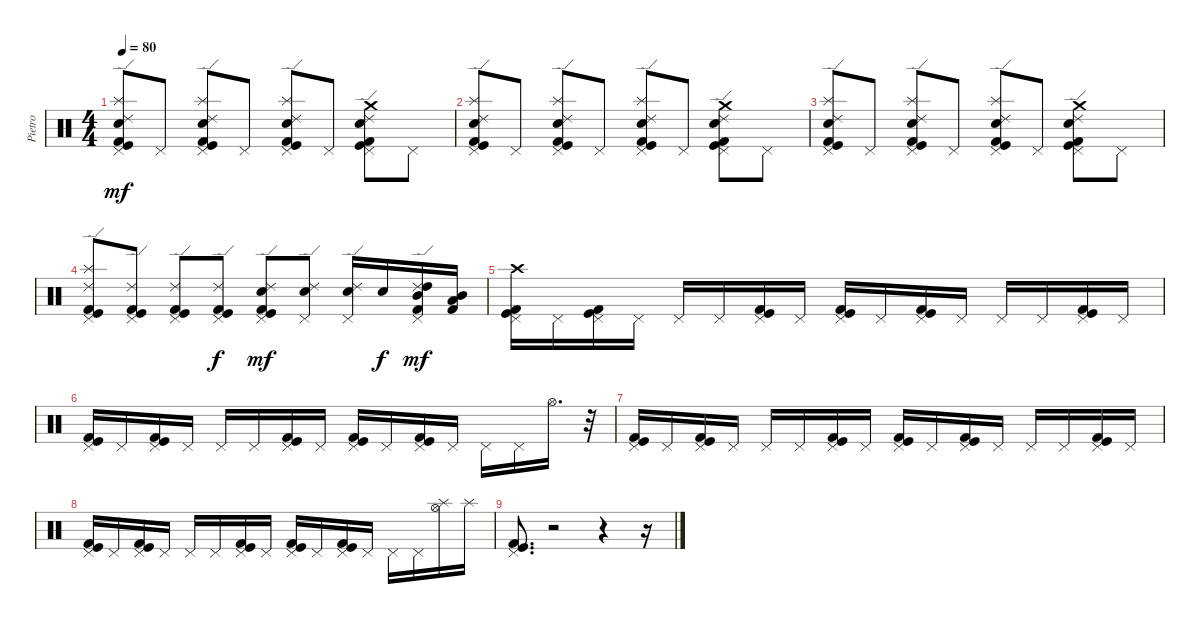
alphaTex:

\track ("Pietro" "Pietro") {instrument percussion}
\staff {score}
\articulation defaults
\ts (4 4)
\tempo 80
\clef neutral
\ks c
("Pedal Hi-Hat (hit)" "Ride (edge) 2" "Snare (hit) 2" "Splash (hit)" "Kick (hit)" "Kick (hit) 2").8{dy mf} "Pedal Hi-Hat (hit)".8 ("Pedal Hi-Hat (hit)" "Ride (edge) 2" "Snare (hit) 2" "Splash (hit)" "Kick (hit)" "Kick (hit) 2").8 "Pedal Hi-Hat (hit)".8 ("Pedal Hi-Hat (hit)" "Ride (edge) 2" "Snare (hit) 2" "Splash (hit)" "Kick (hit)" "Kick (hit) 2").8 "Pedal Hi-Hat (hit)".8 ("Pedal Hi-Hat (hit)" "Ride (edge) 2" "Snare (hit) 2" "Crash medium (hit)" "Kick (hit)" "Kick (hit) 2").8 "Pedal Hi-Hat (hit)".8 |
("Pedal Hi-Hat (hit)" "Ride (edge) 2" "Snare (hit) 2" "Splash (hit)" "Kick (hit)" "Kick (hit) 2").8 "Pedal Hi-Hat (hit)".8 ("Pedal Hi-Hat (hit)" "Ride (edge) 2" "Snare (hit) 2" "Splash (hit)" "Kick (hit)" "Kick (hit) 2").8 "Pedal Hi-Hat (hit)".8 ("Pedal Hi-Hat (hit)" "Ride (edge) 2" "Snare (hit) 2" "Splash (hit)" "Kick (hit)" "Kick (hit) 2").8 "Pedal Hi-Hat (hit)".8 ("Pedal Hi-Hat (hit)" "Ride (edge) 2" "Snare (hit) 2" "Crash medium (hit)" "Kick (hit)" "Kick (hit) 2").8 "Pedal Hi-Hat (hit)".8 |
("Pedal Hi-Hat (hit)" "Ride (edge) 2" "Snare (hit) 2" "Splash (hit)" "Kick (hit)" "Kick (hit) 2").8 "Pedal Hi-Hat (hit)".8 ("Pedal Hi-Hat (hit)" "Ride (edge) 2" "Snare (hit) 2" "Splash (hit)" "Kick (hit)" "Kick (hit) 2").8 "Pedal Hi-Hat (hit)".8 ("Pedal Hi-Hat (hit)" "Ride (edge) 2" "Snare (hit) 2" "Splash (hit)" "Kick (hit)" "Kick (hit) 2").8 "Pedal Hi-Hat (hit)".8 ("Pedal Hi-Hat (hit)" "Ride (edge) 2" "Snare (hit) 2" "Crash medium (hit)" "Kick (hit)" "Kick (hit) 2").8 "Pedal Hi-Hat (hit)".8 |
("Pedal Hi-Hat (hit)" "Ride (edge) 2" "Splash (hit)" "Kick (hit)" "Kick (hit) 2").8 ("Pedal Hi-Hat (hit)" "Ride (edge) 2" "Kick (hit)" "Kick (hit) 2").8 ("Pedal Hi-Hat (hit)" "Ride (edge) 2" "Kick (hit)" "Kick (hit) 2").8 ("Pedal Hi-Hat (hit)" "Ride (edge) 2" "Kick (hit)" "Kick (hit) 2").8{dy f} ("Pedal Hi-Hat (hit)" "Ride (edge) 2" "Snare (hit) 2" "Kick (hit)" "Kick (hit) 2").8{dy mf} ("Pedal Hi-Hat (hit)" "Ride (edge) 2" "Snare (hit) 2").8 ("Pedal Hi-Hat (hit)" "Ride (edge) 2" "Snare (hit) 2").16 "Snare (hit) 2".16{dy f} ("Pedal Hi-Hat (hit)" "Ride (edge) 2" "High Tom (hit)" "Mid Tom (hit)" "Kick (hit) 2").16{dy mf} ("Mid Tom (hit)" "Low Tom (hit)" "Kick (hit) 2").16 |
("Pedal Hi-Hat (hit)" "Crash high (hit)" "Kick (hit)" "Kick (hit) 2").16 "Pedal Hi-Hat (hit)".16 ("Pedal Hi-Hat (hit)" "Kick (hit)" "Kick (hit) 2").16 "Pedal Hi-Hat (hit)".16 "Pedal Hi-Hat (hit)".16 "Pedal Hi-Hat (hit)".16 ("Pedal Hi-Hat (hit)" "Kick (hit)" "Kick (hit) 2").16 "Pedal Hi-Hat (hit)".16 ("Pedal Hi-Hat (hit)" "Kick (hit)" "Kick (hit) 2").16 "Pedal Hi-Hat (hit)".16 ("Pedal Hi-Hat (hit)" "Kick (hit)" "Kick (hit) 2").16 "Pedal Hi-Hat (hit)".16 "Pedal Hi-Hat (hit)".16 "Pedal Hi-Hat (hit)".16 ("Pedal Hi-Hat (hit)" "Kick (hit)" "Kick (hit) 2").16 "Pedal Hi-Hat (hit)".16 |
("Pedal Hi-Hat (hit)" "Kick (hit)" "Kick (hit) 2").16 "Pedal Hi-Hat (hit)".16 ("Pedal Hi-Hat (hit)" "Kick (hit)" "Kick (hit) 2").16 "Pedal Hi-Hat (hit)".16 "Pedal Hi-Hat (hit)".16 "Pedal Hi-Hat (hit)".16 ("Pedal Hi-Hat (hit)" "Kick (hit)" "Kick (hit) 2").16 "Pedal Hi-Hat (hit)".16 ("Pedal Hi-Hat (hit)" "Kick (hit)" "Kick (hit) 2").16 "Pedal Hi-Hat (hit)".16 ("Pedal Hi-Hat (hit)" "Kick (hit)" "Kick (hit) 2").16 "Pedal Hi-Hat (hit)".16 "Pedal Hi-Hat (hit)".16 "Pedal Hi-Hat (hit)".16 "Hi-Hat (open)".16{d} r.32 |
("Pedal Hi-Hat (hit)" "Kick (hit)" "Kick (hit) 2").16 "Pedal Hi-Hat (hit)".16 ("Pedal Hi-Hat (hit)" "Kick (hit)" "Kick (hit) 2").16 "Pedal Hi-Hat (hit)".16 "Pedal Hi-Hat (hit)".16 "Pedal Hi-Hat (hit)".16 ("Pedal Hi-Hat (hit)" "Kick (hit)" "Kick (hit) 2").16 "Pedal Hi-Hat (hit)".16 ("Pedal Hi-Hat (hit)" "Kick (hit)" "Kick (hit) 2").16 "Pedal Hi-Hat (hit)".16 ("Pedal Hi-Hat (hit)" "Kick (hit)" "Kick (hit) 2").16 "Pedal Hi-Hat (hit)".16 "Pedal Hi-Hat (hit)".16 "Pedal Hi-Hat (hit)".16 ("Pedal Hi-Hat (hit)" "Kick (hit)" "Kick (hit) 2").16 "Pedal Hi-Hat (hit)".16 |
("Pedal Hi-Hat (hit)" "Kick (hit)" "Kick (hit) 2").16 "Pedal Hi-Hat (hit)".16 ("Pedal Hi-Hat (hit)" "Kick (hit)" "Kick (hit) 2").16 "Pedal Hi-Hat (hit)".16 "Pedal Hi-Hat (hit)".16 "Pedal Hi-Hat (hit)".16 ("Pedal Hi-Hat (hit)" "Kick (hit)" "Kick (hit) 2").16 "Pedal Hi-Hat (hit)".16 ("Pedal Hi-Hat (hit)" "Kick (hit)" "Kick (hit) 2").16 "Pedal Hi-Hat (hit)".16 ("Pedal Hi-Hat (hit)" "Kick (hit)" "Kick (hit) 2").16 "Pedal Hi-Hat (hit)".16 "Pedal Hi-Hat (hit)".16 "Pedal Hi-Hat (hit)".16 ("Hi-Hat (open)" "Splash (hit)").16 "Splash (hit)".16 |
("Pedal Hi-Hat (hit)" "Kick (hit)" "Kick (hit) 2").8{d} r.2 r.4 r.16
